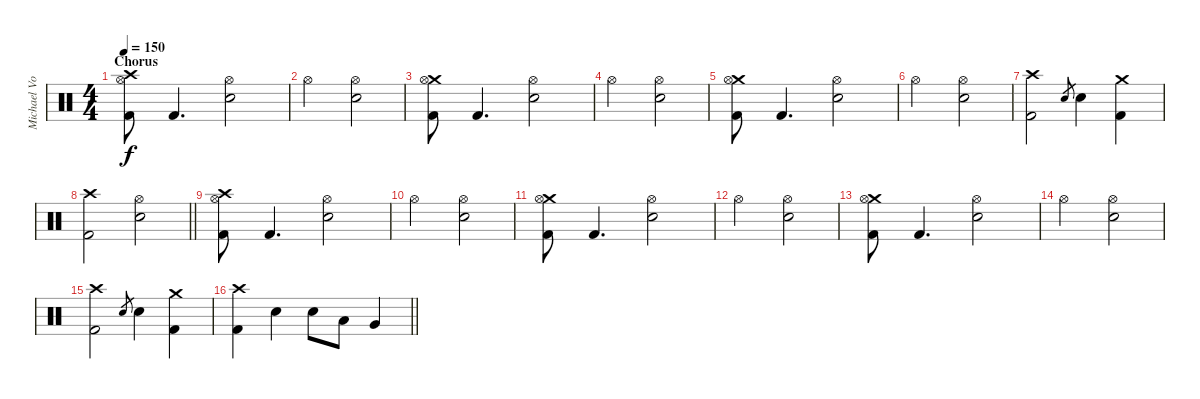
\track ("Michael Von Knorring" "Michael Vo") {instrument percussion}
\staff {score}
\articulation defaults
\ts (4 4)
\section ("" "Chorus")
\tempo 150
\clef neutral
\ks c
("Crash high (hit)" "Hi-Hat (open)" "Kick (hit) 2").8{dy f} "Kick (hit) 2".4{d} ("Hi-Hat (open)" "Snare (hit) 2").2 |
"Hi-Hat (open)".2 ("Hi-Hat (open)" "Snare (hit) 2").2 |
("Crash medium (hit)" "Hi-Hat (open)" "Kick (hit) 2").8 "Kick (hit) 2".4{d} ("Hi-Hat (open)" "Snare (hit) 2").2 |
"Hi-Hat (open)".2 ("Hi-Hat (open)" "Snare (hit) 2").2 |
("Crash medium (hit)" "Hi-Hat (open)" "Kick (hit) 2").8 "Kick (hit) 2".4{d} ("Hi-Hat (open)" "Snare (hit) 2").2 |
"Hi-Hat (open)".2 ("Hi-Hat (open)" "Snare (hit) 2").2 |
("Crash high (hit)" "Kick (hit) 2").2 "Snare (hit) 2".8{gr} "Snare (hit) 2".4 ("Crash medium (hit)" "Kick (hit) 2").4 |
\barLineRight lightlight
("Crash high (hit)" "Kick (hit) 2").2 ("Hi-Hat (open)" "Snare (hit) 2").2 |
("Crash high (hit)" "Hi-Hat (open)" "Kick (hit) 2").8 "Kick (hit) 2".4{d} ("Hi-Hat (open)" "Snare (hit) 2").2 |
"Hi-Hat (open)".2 ("Hi-Hat (open)" "Snare (hit) 2").2 |
("Crash medium (hit)" "Hi-Hat (open)" "Kick (hit) 2").8 "Kick (hit) 2".4{d} ("Hi-Hat (open)" "Snare (hit) 2").2 |
"Hi-Hat (open)".2 ("Hi-Hat (open)" "Snare (hit) 2").2 |
("Crash medium (hit)" "Hi-Hat (open)" "Kick (hit) 2").8 "Kick (hit) 2".4{d} ("Hi-Hat (open)" "Snare (hit) 2").2 |
"Hi-Hat (open)".2 ("Hi-Hat (open)" "Snare (hit) 2").2 |
("Crash high (hit)" "Kick (hit) 2").2 "Snare (hit) 2".8{gr} "Snare (hit) 2".4 ("Crash medium (hit)" "Kick (hit) 2").4 |
\barLineRight lightlight
("Crash high (hit)" "Kick (hit) 2").4 "Snare (hit) 2".4 "Snare (hit) 2".8 "Low Tom (hit)".8 "Very Low Tom (hit)".4
